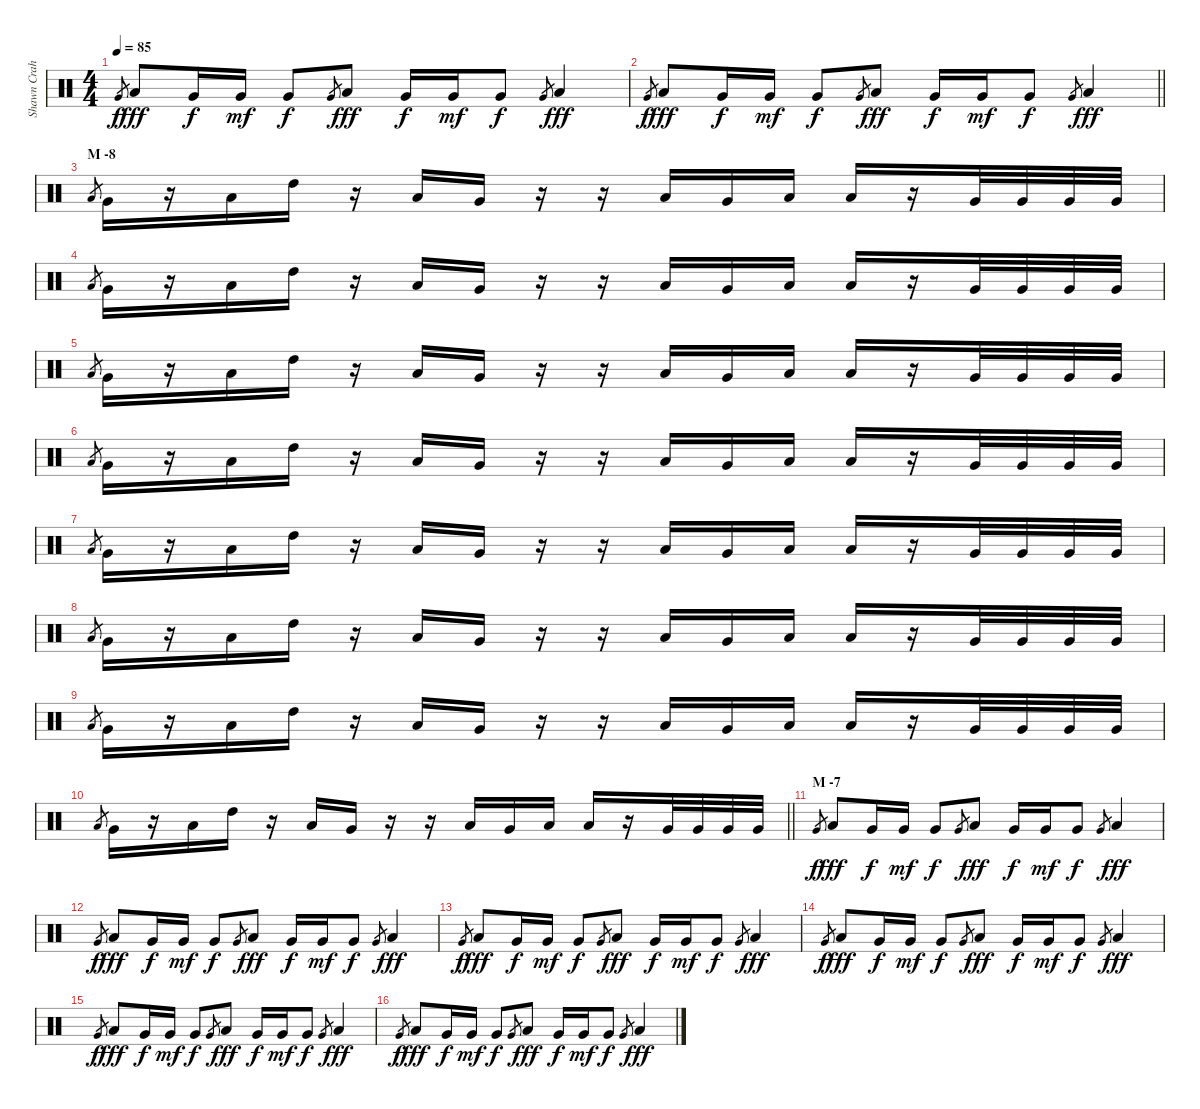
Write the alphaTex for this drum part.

\track ("Shawn Crahan" "Shawn Crah") {instrument percussion}
\staff {score}
\articulation defaults
\ts (4 4)
\tempo 85
\clef neutral
\ks c "Very Low Tom (hit)".8{gr dy f} "Low Tom (hit)".8{dy fff} "Very Low Tom (hit)".16{dy f} "Very Low Tom (hit)".16{dy mf} "Very Low Tom (hit)".8{dy f} "Very Low Tom (hit)".8{gr} "Low Tom (hit)".8{dy fff} "Very Low Tom (hit)".16{dy f} "Very Low Tom (hit)".16{dy mf} "Very Low Tom (hit)".8{dy f} "Very Low Tom (hit)".8{gr} "Low Tom (hit)".4{dy fff}
|
\barLineRight lightlight "Very Low Tom (hit)".8{gr dy f} "Low Tom (hit)".8{dy fff} "Very Low Tom (hit)".16{dy f} "Very Low Tom (hit)".16{dy mf} "Very Low Tom (hit)".8{dy f} "Very Low Tom (hit)".8{gr} "Low Tom (hit)".8{dy fff} "Very Low Tom (hit)".16{dy f} "Very Low Tom (hit)".16{dy mf} "Very Low Tom (hit)".8{dy f} "Very Low Tom (hit)".8{gr} "Low Tom (hit)".4{dy fff}
|
\section ("" "M -8")
"Low Tom (hit)".8{gr} "Very Low Tom (hit)".16 r.16 "Low Tom (hit)".16 "High Tom (hit)".16 r.16 "Low Tom (hit)".16 "Very Low Tom (hit)".16 r.16 r.16 "Low Tom (hit)".16 "Very Low Tom (hit)".16 "Low Floor Tom (hit)".16 "Low Tom (hit)".16 r.16 "Very Low Tom (hit)".32 "Very Low Tom (hit)".32 "Very Low Tom (hit)".32 "Very Low Tom (hit)".32 |
"Low Tom (hit)".8{gr} "Very Low Tom (hit)".16 r.16 "Low Tom (hit)".16 "High Tom (hit)".16 r.16 "Low Tom (hit)".16 "Very Low Tom (hit)".16 r.16 r.16 "Low Tom (hit)".16 "Very Low Tom (hit)".16 "Low Floor Tom (hit)".16 "Low Tom (hit)".16 r.16 "Very Low Tom (hit)".32 "Very Low Tom (hit)".32 "Very Low Tom (hit)".32 "Very Low Tom (hit)".32 |
"Low Tom (hit)".8{gr} "Very Low Tom (hit)".16 r.16 "Low Tom (hit)".16 "High Tom (hit)".16 r.16 "Low Tom (hit)".16 "Very Low Tom (hit)".16 r.16 r.16 "Low Tom (hit)".16 "Very Low Tom (hit)".16 "Low Floor Tom (hit)".16 "Low Tom (hit)".16 r.16 "Very Low Tom (hit)".32 "Very Low Tom (hit)".32 "Very Low Tom (hit)".32 "Very Low Tom (hit)".32 |
"Low Tom (hit)".8{gr} "Very Low Tom (hit)".16 r.16 "Low Tom (hit)".16 "High Tom (hit)".16 r.16 "Low Tom (hit)".16 "Very Low Tom (hit)".16 r.16 r.16 "Low Tom (hit)".16 "Very Low Tom (hit)".16 "Low Floor Tom (hit)".16 "Low Tom (hit)".16 r.16 "Very Low Tom (hit)".32 "Very Low Tom (hit)".32 "Very Low Tom (hit)".32 "Very Low Tom (hit)".32 |
"Low Tom (hit)".8{gr} "Very Low Tom (hit)".16 r.16 "Low Tom (hit)".16 "High Tom (hit)".16 r.16 "Low Tom (hit)".16 "Very Low Tom (hit)".16 r.16 r.16 "Low Tom (hit)".16 "Very Low Tom (hit)".16 "Low Floor Tom (hit)".16 "Low Tom (hit)".16 r.16 "Very Low Tom (hit)".32 "Very Low Tom (hit)".32 "Very Low Tom (hit)".32 "Very Low Tom (hit)".32 |
"Low Tom (hit)".8{gr} "Very Low Tom (hit)".16 r.16 "Low Tom (hit)".16 "High Tom (hit)".16 r.16 "Low Tom (hit)".16 "Very Low Tom (hit)".16 r.16 r.16 "Low Tom (hit)".16 "Very Low Tom (hit)".16 "Low Floor Tom (hit)".16 "Low Tom (hit)".16 r.16 "Very Low Tom (hit)".32 "Very Low Tom (hit)".32 "Very Low Tom (hit)".32 "Very Low Tom (hit)".32 |
"Low Tom (hit)".8{gr} "Very Low Tom (hit)".16 r.16 "Low Tom (hit)".16 "High Tom (hit)".16 r.16 "Low Tom (hit)".16 "Very Low Tom (hit)".16 r.16 r.16 "Low Tom (hit)".16 "Very Low Tom (hit)".16 "Low Floor Tom (hit)".16 "Low Tom (hit)".16 r.16 "Very Low Tom (hit)".32 "Very Low Tom (hit)".32 "Very Low Tom (hit)".32 "Very Low Tom (hit)".32 |
\barLineRight lightlight "Low Tom (hit)".8{gr} "Very Low Tom (hit)".16
r.16 "Low Tom (hit)".16 "High Tom (hit)".16 r.16 "Low Tom (hit)".16 "Very Low Tom (hit)".16 r.16 r.16 "Low Tom (hit)".16 "Very Low Tom (hit)".16 "Low Floor Tom (hit)".16 "Low Tom (hit)".16 r.16 "Very Low Tom (hit)".32 "Very Low Tom (hit)".32 "Very Low Tom (hit)".32 "Very Low Tom (hit)".32 |
\section ("" "M -7")
"Very Low Tom (hit)".8{gr dy f} "Low Tom (hit)".8{dy fff} "Very Low Tom (hit)".16{dy f} "Very Low Tom (hit)".16{dy mf} "Very Low Tom (hit)".8{dy f} "Very Low Tom (hit)".8{gr} "Low Tom (hit)".8{dy fff} "Very Low Tom (hit)".16{dy f} "Very Low Tom (hit)".16{dy mf} "Very Low Tom (hit)".8{dy f} "Very Low Tom (hit)".8{gr} "Low Tom (hit)".4{dy fff} |
"Very Low Tom (hit)".8{gr dy f} "Low Tom (hit)".8{dy fff} "Very Low Tom (hit)".16{dy f} "Very Low Tom (hit)".16{dy mf} "Very Low Tom (hit)".8{dy f} "Very Low Tom (hit)".8{gr} "Low Tom (hit)".8{dy fff} "Very Low Tom (hit)".16{dy f} "Very Low Tom (hit)".16{dy mf} "Very Low Tom (hit)".8{dy f} "Very Low Tom (hit)".8{gr} "Low Tom (hit)".4{dy fff} |
"Very Low Tom (hit)".8{gr dy f} "Low Tom (hit)".8{dy fff} "Very Low Tom (hit)".16{dy f} "Very Low Tom (hit)".16{dy mf} "Very Low Tom (hit)".8{dy f} "Very Low Tom (hit)".8{gr} "Low Tom (hit)".8{dy fff} "Very Low Tom (hit)".16{dy f} "Very Low Tom (hit)".16{dy mf} "Very Low Tom (hit)".8{dy f} "Very Low Tom (hit)".8{gr} "Low Tom (hit)".4{dy fff} |
"Very Low Tom (hit)".8{gr dy f} "Low Tom (hit)".8{dy fff} "Very Low Tom (hit)".16{dy f} "Very Low Tom (hit)".16{dy mf} "Very Low Tom (hit)".8{dy f} "Very Low Tom (hit)".8{gr} "Low Tom (hit)".8{dy fff} "Very Low Tom (hit)".16{dy f} "Very Low Tom (hit)".16{dy mf} "Very Low Tom (hit)".8{dy f} "Very Low Tom (hit)".8{gr} "Low Tom (hit)".4{dy fff} |
"Very Low Tom (hit)".8{gr dy f} "Low Tom (hit)".8{dy fff} "Very Low Tom (hit)".16{dy f} "Very Low Tom (hit)".16{dy mf} "Very Low Tom (hit)".8{dy f} "Very Low Tom (hit)".8{gr} "Low Tom (hit)".8{dy fff} "Very Low Tom (hit)".16{dy f} "Very Low Tom (hit)".16{dy mf} "Very Low Tom (hit)".8{dy f} "Very Low Tom (hit)".8{gr} "Low Tom (hit)".4{dy fff} |
"Very Low Tom (hit)".8{gr dy f} "Low Tom (hit)".8{dy fff} "Very Low Tom (hit)".16{dy f} "Very Low Tom (hit)".16{dy mf} "Very Low Tom (hit)".8{dy f} "Very Low Tom (hit)".8{gr} "Low Tom (hit)".8{dy fff} "Very Low Tom (hit)".16{dy f} "Very Low Tom (hit)".16{dy mf} "Very Low Tom (hit)".8{dy f} "Very Low Tom (hit)".8{gr} "Low Tom (hit)".4{dy fff}
